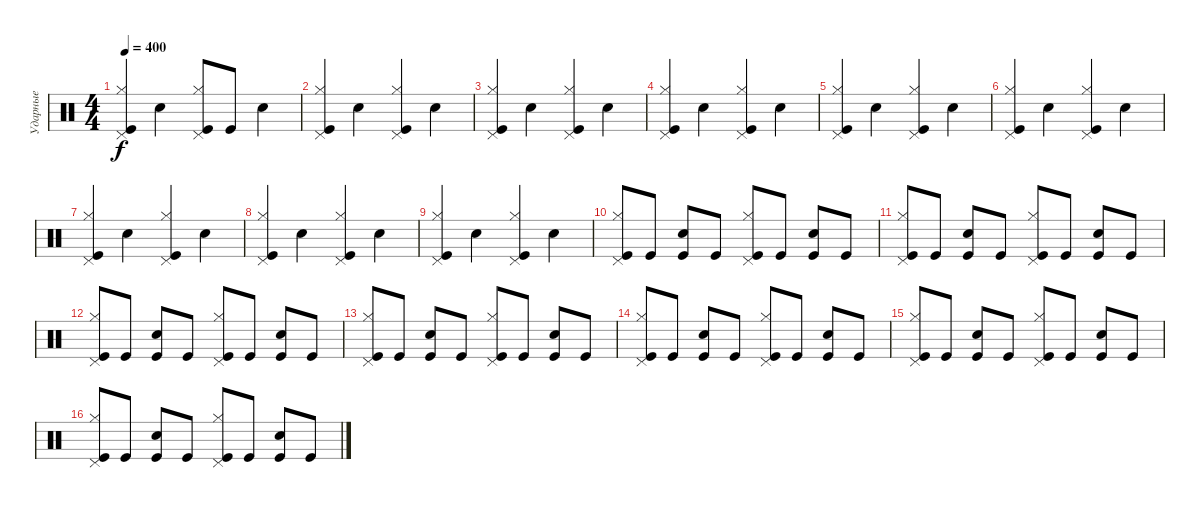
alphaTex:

\track ("Ударные" "Ударные") {instrument percussion}
\staff {score}
\articulation defaults
\ts (4 4)
\tempo 400
\clef neutral
\ks c
("Kick (hit)" "Hi-Hat (closed)" "Pedal Hi-Hat (hit)").4{dy f} "Electric Snare (hit)".4 ("Kick (hit)" "Pedal Hi-Hat (hit)" "Hi-Hat (closed)").8 "Kick (hit)".8 "Electric Snare (hit)".4 |
("Kick (hit)" "Hi-Hat (closed)" "Pedal Hi-Hat (hit)").4 "Electric Snare (hit)".4 ("Kick (hit)" "Pedal Hi-Hat (hit)" "Hi-Hat (closed)").4 "Electric Snare (hit)".4 |
("Kick (hit)" "Hi-Hat (closed)" "Pedal Hi-Hat (hit)").4 "Electric Snare (hit)".4 ("Kick (hit)" "Pedal Hi-Hat (hit)" "Hi-Hat (closed)").4 "Electric Snare (hit)".4 |
("Kick (hit)" "Hi-Hat (closed)" "Pedal Hi-Hat (hit)").4 "Electric Snare (hit)".4 ("Kick (hit)" "Pedal Hi-Hat (hit)" "Hi-Hat (closed)").4 "Electric Snare (hit)".4 |
("Kick (hit)" "Hi-Hat (closed)" "Pedal Hi-Hat (hit)").4 "Electric Snare (hit)".4 ("Kick (hit)" "Pedal Hi-Hat (hit)" "Hi-Hat (closed)").4 "Electric Snare (hit)".4 |
("Kick (hit)" "Hi-Hat (closed)" "Pedal Hi-Hat (hit)").4 "Electric Snare (hit)".4 ("Kick (hit)" "Pedal Hi-Hat (hit)" "Hi-Hat (closed)").4 "Electric Snare (hit)".4 |
("Kick (hit)" "Hi-Hat (closed)" "Pedal Hi-Hat (hit)").4 "Electric Snare (hit)".4 ("Kick (hit)" "Pedal Hi-Hat (hit)" "Hi-Hat (closed)").4 "Electric Snare (hit)".4 |
("Kick (hit)" "Hi-Hat (closed)" "Pedal Hi-Hat (hit)").4 "Electric Snare (hit)".4 ("Kick (hit)" "Pedal Hi-Hat (hit)" "Hi-Hat (closed)").4 "Electric Snare (hit)".4 |
("Kick (hit)" "Hi-Hat (closed)" "Pedal Hi-Hat (hit)").4 "Electric Snare (hit)".4 ("Kick (hit)" "Pedal Hi-Hat (hit)" "Hi-Hat (closed)").4 "Electric Snare (hit)".4 |
("Kick (hit)" "Pedal Hi-Hat (hit)" "Hi-Hat (closed)").8 "Kick (hit)".8 ("Kick (hit)" "Electric Snare (hit)").8 "Kick (hit)".8 ("Kick (hit)" "Hi-Hat (closed)" "Pedal Hi-Hat (hit)").8 "Kick (hit)".8 ("Kick (hit)" "Electric Snare (hit)").8 "Kick (hit)".8 |
("Kick (hit)" "Pedal Hi-Hat (hit)" "Hi-Hat (closed)").8 "Kick (hit)".8 ("Kick (hit)" "Electric Snare (hit)").8 "Kick (hit)".8 ("Kick (hit)" "Hi-Hat (closed)" "Pedal Hi-Hat (hit)").8 "Kick (hit)".8 ("Kick (hit)" "Electric Snare (hit)").8 "Kick (hit)".8 |
("Kick (hit)" "Pedal Hi-Hat (hit)" "Hi-Hat (closed)").8 "Kick (hit)".8 ("Kick (hit)" "Electric Snare (hit)").8 "Kick (hit)".8 ("Kick (hit)" "Hi-Hat (closed)" "Pedal Hi-Hat (hit)").8 "Kick (hit)".8 ("Kick (hit)" "Electric Snare (hit)").8 "Kick (hit)".8 |
("Kick (hit)" "Pedal Hi-Hat (hit)" "Hi-Hat (closed)").8 "Kick (hit)".8 ("Kick (hit)" "Electric Snare (hit)").8 "Kick (hit)".8 ("Kick (hit)" "Hi-Hat (closed)" "Pedal Hi-Hat (hit)").8 "Kick (hit)".8 ("Kick (hit)" "Electric Snare (hit)").8 "Kick (hit)".8 |
("Kick (hit)" "Pedal Hi-Hat (hit)" "Hi-Hat (closed)").8 "Kick (hit)".8 ("Kick (hit)" "Electric Snare (hit)").8 "Kick (hit)".8 ("Kick (hit)" "Hi-Hat (closed)" "Pedal Hi-Hat (hit)").8 "Kick (hit)".8 ("Kick (hit)" "Electric Snare (hit)").8 "Kick (hit)".8 |
("Kick (hit)" "Pedal Hi-Hat (hit)" "Hi-Hat (closed)").8 "Kick (hit)".8 ("Kick (hit)" "Electric Snare (hit)").8 "Kick (hit)".8 ("Kick (hit)" "Hi-Hat (closed)" "Pedal Hi-Hat (hit)").8 "Kick (hit)".8 ("Kick (hit)" "Electric Snare (hit)").8 "Kick (hit)".8 |
("Kick (hit)" "Pedal Hi-Hat (hit)" "Hi-Hat (closed)").8 "Kick (hit)".8 ("Kick (hit)" "Electric Snare (hit)").8 "Kick (hit)".8 ("Kick (hit)" "Hi-Hat (closed)" "Pedal Hi-Hat (hit)").8 "Kick (hit)".8 ("Kick (hit)" "Electric Snare (hit)").8 "Kick (hit)".8
